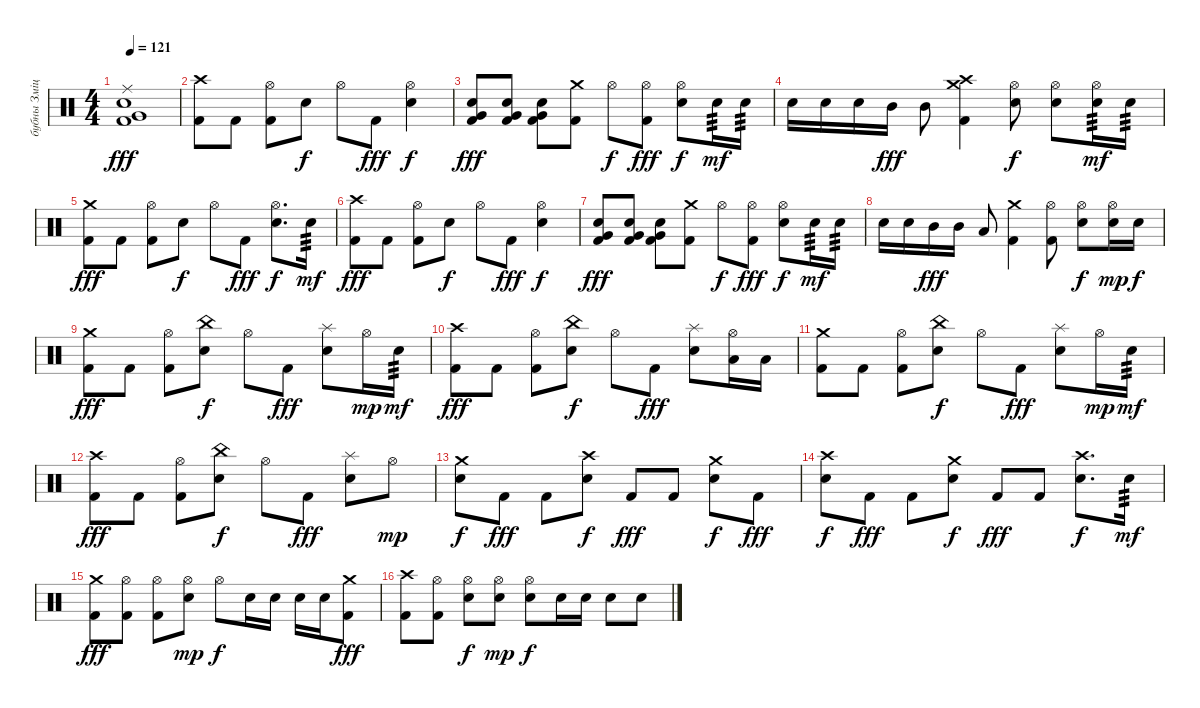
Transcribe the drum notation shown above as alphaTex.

\track ("бубны Змiцер " "бубны Змiц") {instrument percussion}
\staff {score}
\articulation defaults
\ts (4 4)
\tempo 121
\clef neutral
\ks c
("Electric Snare (hit)" "Very Low Tom (hit)" "Ride (middle)" "Kick (hit) 2").1{dy fff} |
("Crash high (hit)" "Kick (hit) 2").8 "Kick (hit) 2".8 ("Hi-Hat (open)" "Kick (hit) 2").8 "Electric Snare (hit)".8{dy f} "Hi-Hat (open)".8 "Kick (hit) 2".8{dy fff} ("Hi-Hat (open)" "Electric Snare (hit)").4{dy f} |
("Very Low Tom (hit)" "Electric Snare (hit)" "Kick (hit) 2").8{dy fff} ("Very Low Tom (hit)" "Electric Snare (hit)" "Kick (hit) 2").8 ("Very Low Tom (hit)" "Electric Snare (hit)" "Kick (hit) 2").8 ("Crash medium (hit)" "Kick (hit) 2").8 "Hi-Hat (open)".8{dy f} ("Hi-Hat (open)" "Kick (hit) 2").8{dy fff} ("Hi-Hat (open)" "Electric Snare (hit)").8{dy f} "Electric Snare (hit)".16{tp 3 dy mf} "Electric Snare (hit)".16{tp 3} |
"Electric Snare (hit)".16 "Electric Snare (hit)".16 "Electric Snare (hit)".16 "Mid Tom (hit)".16{dy fff} "Mid Tom (hit)".8 ("Crash medium (hit)" "Crash high (hit)" "Kick (hit) 2").4 ("Hi-Hat (open)" "Electric Snare (hit)").8{dy f} ("Hi-Hat (open)" "Electric Snare (hit)").8 ("Hi-Hat (open)" "Electric Snare (hit)").16{tp 3 dy mf} "Electric Snare (hit)".16{tp 3} |
("Crash medium (hit)" "Kick (hit) 2").8{dy fff} "Kick (hit) 2".8 ("Hi-Hat (open)" "Kick (hit) 2").8 "Electric Snare (hit)".8{dy f} "Hi-Hat (open)".8 "Kick (hit) 2".8{dy fff} ("Hi-Hat (open)" "Electric Snare (hit)").8{d dy f} "Electric Snare (hit)".16{tp 3 dy mf} |
("Crash high (hit)" "Kick (hit) 2").8{dy fff} "Kick (hit) 2".8 ("Hi-Hat (open)" "Kick (hit) 2").8 "Electric Snare (hit)".8{dy f} "Hi-Hat (open)".8 "Kick (hit) 2".8{dy fff} ("Hi-Hat (open)" "Electric Snare (hit)").4{dy f} |
("Very Low Tom (hit)" "Electric Snare (hit)" "Kick (hit) 2").8{dy fff} ("Very Low Tom (hit)" "Electric Snare (hit)" "Kick (hit) 2").8 ("Very Low Tom (hit)" "Electric Snare (hit)" "Kick (hit) 2").8 ("Crash medium (hit)" "Kick (hit) 2").8 "Hi-Hat (open)".8{dy f} ("Hi-Hat (open)" "Kick (hit) 2").8{dy fff} ("Hi-Hat (open)" "Electric Snare (hit)").8{dy f} "Electric Snare (hit)".16{tp 3 dy mf} "Electric Snare (hit)".16{tp 3} |
"Electric Snare (hit)".16 "Electric Snare (hit)".16 "Mid Tom (hit)".16{dy fff} "Mid Tom (hit)".16 "Low Tom (hit)".8 ("Crash medium (hit)" "Kick (hit) 2").4 ("Hi-Hat (open)" "Kick (hit) 2").8 ("Hi-Hat (open)" "Electric Snare (hit)").8{dy f} ("Hi-Hat (open)" "Electric Snare (hit)").16{dy mp} "Electric Snare (hit)".16{dy f} |
("Crash medium (hit)" "Kick (hit) 2").8{dy fff} "Kick (hit) 2".8 ("Hi-Hat (open)" "Kick (hit) 2").8 ("China (hit)" "Electric Snare (hit)").8{dy f} "Hi-Hat (open)".8 "Kick (hit) 2".8{dy fff} ("Splash (hit)" "Electric Snare (hit)").8 "Hi-Hat (open)".16{dy mp} "Electric Snare (hit)".16{tp 3 dy mf} |
("Crash high (hit)" "Kick (hit) 2").8{dy fff} "Kick (hit) 2".8 ("Hi-Hat (open)" "Kick (hit) 2").8 ("China (hit)" "Electric Snare (hit)").8{dy f} "Hi-Hat (open)".8 "Kick (hit) 2".8{dy fff} ("Splash (hit)" "Electric Snare (hit)").8 ("Hi-Hat (open)" "Low Tom (hit)").16 "Low Tom (hit)".16 |
("Crash medium (hit)" "Kick (hit) 2").8 "Kick (hit) 2".8 ("Hi-Hat (open)" "Kick (hit) 2").8 ("China (hit)" "Electric Snare (hit)").8{dy f} "Hi-Hat (open)".8 "Kick (hit) 2".8{dy fff} ("Splash (hit)" "Electric Snare (hit)").8 "Hi-Hat (open)".16{dy mp} "Electric Snare (hit)".16{tp 3 dy mf} |
("Crash high (hit)" "Kick (hit) 2").8{dy fff} "Kick (hit) 2".8 ("Hi-Hat (open)" "Kick (hit) 2").8 ("China (hit)" "Electric Snare (hit)").8{dy f} "Hi-Hat (open)".8 "Kick (hit) 2".8{dy fff} ("Splash (hit)" "Electric Snare (hit)").8 "Hi-Hat (open)".8{dy mp} |
("Crash medium (hit)" "Electric Snare (hit)").8{dy f} "Kick (hit) 2".8{dy fff} "Kick (hit) 2".8 ("Crash high (hit)" "Electric Snare (hit)").8{dy f} "Kick (hit) 2".8{dy fff} "Kick (hit) 2".8 ("Crash medium (hit)" "Electric Snare (hit)").8{dy f} "Kick (hit) 2".8{dy fff} |
("Crash high (hit)" "Electric Snare (hit)").8{dy f} "Kick (hit) 2".8{dy fff} "Kick (hit) 2".8 ("Crash medium (hit)" "Electric Snare (hit)").8{dy f} "Kick (hit) 2".8{dy fff} "Kick (hit) 2".8 ("Crash high (hit)" "Electric Snare (hit)").8{d dy f} "Electric Snare (hit)".16{tp 3 dy mf} |
("Crash medium (hit)" "Kick (hit) 2").8{dy fff} ("Hi-Hat (open)" "Kick (hit) 2").8 ("Hi-Hat (open)" "Kick (hit) 2").8 ("Hi-Hat (open)" "Electric Snare (hit)").8{dy mp} "Hi-Hat (open)".8{dy f} "Electric Snare (hit)".16 "Electric Snare (hit)".16 "Electric Snare (hit)".16 "Electric Snare (hit)".16 ("Crash medium (hit)" "Kick (hit) 2").8{dy fff} |
("Crash high (hit)" "Kick (hit) 2").8 ("Hi-Hat (open)" "Kick (hit) 2").8 ("Hi-Hat (open)" "Electric Snare (hit)").8{dy f} ("Hi-Hat (open)" "Electric Snare (hit)").8{dy mp} ("Hi-Hat (open)" "Electric Snare (hit)").8{dy f} "Electric Snare (hit)".16 "Electric Snare (hit)".16 "Electric Snare (hit)".8 "Electric Snare (hit)".8
